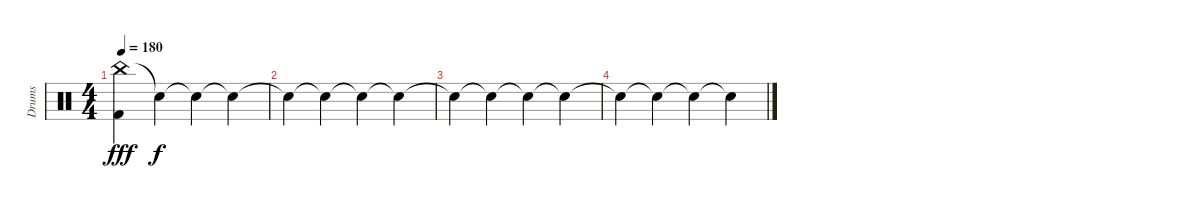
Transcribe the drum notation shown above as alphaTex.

\track ("Drums" "Drums") {instrument percussion}
\staff {score}
\articulation defaults
\ts (4 4)
\section ("" "")
\tempo 180
\clef neutral
\ks c
("China (hit)" "Kick (hit) 2").4{dy fff} "Snare (hit)"{t}.4{dy f} "Snare (hit)"{t}.4 "Snare (hit)"{t}.4 |
"Snare (hit)"{t}.4 "Snare (hit)"{t}.4 "Snare (hit)"{t}.4 "Snare (hit)"{t}.4 |
"Snare (hit)"{t}.4 "Snare (hit)"{t}.4 "Snare (hit)"{t}.4 "Snare (hit)"{t}.4 |
"Snare (hit)"{t}.4 "Snare (hit)"{t}.4 "Snare (hit)"{t}.4 "Snare (hit)"{t}.4
